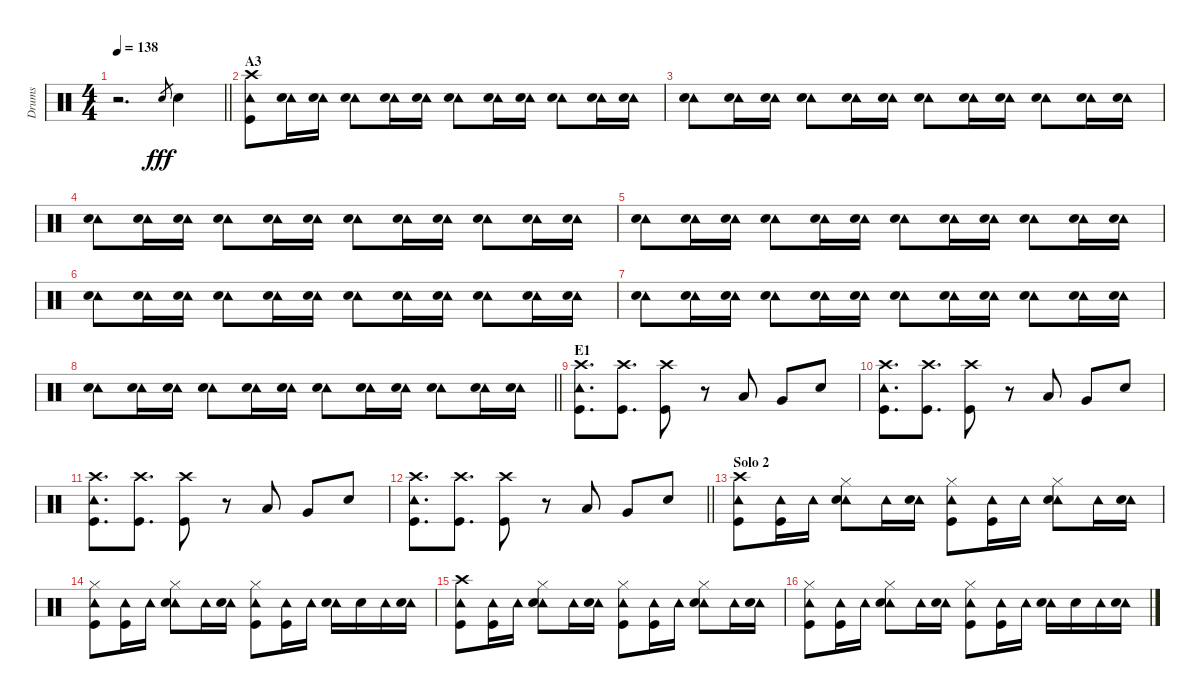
\track ("Drums" "Drums") {instrument percussion}
\staff {score}
\articulation defaults
\ts (4 4)
\tempo 138
\clef neutral
\barLineRight lightlight
\ks c
r.2{d dy fff} "Snare (hit) 2".8{gr} "Snare (hit) 2".4 |
\section ("" "A3")
("Crash high (hit)" "Tambourine (hit)" "Kick (hit)").8 ("Tambourine (hit)" "Snare (hit) 2").16 ("Tambourine (hit)" "Snare (hit) 2").16 ("Tambourine (hit)" "Snare (hit) 2").8 ("Tambourine (hit)" "Snare (hit) 2").16 ("Tambourine (hit)" "Snare (hit) 2").16 ("Tambourine (hit)" "Snare (hit) 2").8 ("Tambourine (hit)" "Snare (hit) 2").16 ("Tambourine (hit)" "Snare (hit) 2").16 ("Tambourine (hit)" "Snare (hit) 2").8 ("Tambourine (hit)" "Snare (hit) 2").16 ("Tambourine (hit)" "Snare (hit) 2").16 |
("Tambourine (hit)" "Snare (hit) 2").8 ("Tambourine (hit)" "Snare (hit) 2").16 ("Tambourine (hit)" "Snare (hit) 2").16 ("Tambourine (hit)" "Snare (hit) 2").8 ("Tambourine (hit)" "Snare (hit) 2").16 ("Tambourine (hit)" "Snare (hit) 2").16 ("Tambourine (hit)" "Snare (hit) 2").8 ("Tambourine (hit)" "Snare (hit) 2").16 ("Tambourine (hit)" "Snare (hit) 2").16 ("Tambourine (hit)" "Snare (hit) 2").8 ("Tambourine (hit)" "Snare (hit) 2").16 ("Tambourine (hit)" "Snare (hit) 2").16 |
("Tambourine (hit)" "Snare (hit) 2").8 ("Tambourine (hit)" "Snare (hit) 2").16 ("Tambourine (hit)" "Snare (hit) 2").16 ("Tambourine (hit)" "Snare (hit) 2").8 ("Tambourine (hit)" "Snare (hit) 2").16 ("Tambourine (hit)" "Snare (hit) 2").16 ("Tambourine (hit)" "Snare (hit) 2").8 ("Tambourine (hit)" "Snare (hit) 2").16 ("Tambourine (hit)" "Snare (hit) 2").16 ("Tambourine (hit)" "Snare (hit) 2").8 ("Tambourine (hit)" "Snare (hit) 2").16 ("Tambourine (hit)" "Snare (hit) 2").16 |
("Tambourine (hit)" "Snare (hit) 2").8 ("Tambourine (hit)" "Snare (hit) 2").16 ("Tambourine (hit)" "Snare (hit) 2").16 ("Tambourine (hit)" "Snare (hit) 2").8 ("Tambourine (hit)" "Snare (hit) 2").16 ("Tambourine (hit)" "Snare (hit) 2").16 ("Tambourine (hit)" "Snare (hit) 2").8 ("Tambourine (hit)" "Snare (hit) 2").16 ("Tambourine (hit)" "Snare (hit) 2").16 ("Tambourine (hit)" "Snare (hit) 2").8 ("Tambourine (hit)" "Snare (hit) 2").16 ("Tambourine (hit)" "Snare (hit) 2").16 |
("Tambourine (hit)" "Snare (hit) 2").8 ("Tambourine (hit)" "Snare (hit) 2").16 ("Tambourine (hit)" "Snare (hit) 2").16 ("Tambourine (hit)" "Snare (hit) 2").8 ("Tambourine (hit)" "Snare (hit) 2").16 ("Tambourine (hit)" "Snare (hit) 2").16 ("Tambourine (hit)" "Snare (hit) 2").8 ("Tambourine (hit)" "Snare (hit) 2").16 ("Tambourine (hit)" "Snare (hit) 2").16 ("Tambourine (hit)" "Snare (hit) 2").8 ("Tambourine (hit)" "Snare (hit) 2").16 ("Tambourine (hit)" "Snare (hit) 2").16 |
("Tambourine (hit)" "Snare (hit) 2").8 ("Tambourine (hit)" "Snare (hit) 2").16 ("Tambourine (hit)" "Snare (hit) 2").16 ("Tambourine (hit)" "Snare (hit) 2").8 ("Tambourine (hit)" "Snare (hit) 2").16 ("Tambourine (hit)" "Snare (hit) 2").16 ("Tambourine (hit)" "Snare (hit) 2").8 ("Tambourine (hit)" "Snare (hit) 2").16 ("Tambourine (hit)" "Snare (hit) 2").16 ("Tambourine (hit)" "Snare (hit) 2").8 ("Tambourine (hit)" "Snare (hit) 2").16 ("Tambourine (hit)" "Snare (hit) 2").16 |
\barLineRight lightlight
("Tambourine (hit)" "Snare (hit) 2").8 ("Tambourine (hit)" "Snare (hit) 2").16 ("Tambourine (hit)" "Snare (hit) 2").16 ("Tambourine (hit)" "Snare (hit) 2").8 ("Tambourine (hit)" "Snare (hit) 2").16 ("Tambourine (hit)" "Snare (hit) 2").16 ("Tambourine (hit)" "Snare (hit) 2").8 ("Tambourine (hit)" "Snare (hit) 2").16 ("Tambourine (hit)" "Snare (hit) 2").16 ("Tambourine (hit)" "Snare (hit) 2").8 ("Tambourine (hit)" "Snare (hit) 2").16 ("Tambourine (hit)" "Snare (hit) 2").16 |
\section ("" "E1")
("Crash high (hit)" "Tambourine (hit)" "Kick (hit)").8{d} ("Crash high (hit)" "Kick (hit)").8{d} ("Crash high (hit)" "Kick (hit)").8 r.8 "Low Floor Tom (hit)".8 "Very Low Tom (hit)".8 "Snare (hit) 2".8 |
("Crash high (hit)" "Tambourine (hit)" "Kick (hit)").8{d} ("Crash high (hit)" "Kick (hit)").8{d} ("Crash high (hit)" "Kick (hit)").8 r.8 "Low Floor Tom (hit)".8 "Very Low Tom (hit)".8 "Snare (hit) 2".8 |
("Crash high (hit)" "Tambourine (hit)" "Kick (hit)").8{d} ("Crash high (hit)" "Kick (hit)").8{d} ("Crash high (hit)" "Kick (hit)").8 r.8 "Low Floor Tom (hit)".8 "Very Low Tom (hit)".8 "Snare (hit) 2".8 |
\barLineRight lightlight
("Crash high (hit)" "Tambourine (hit)" "Kick (hit)").8{d} ("Crash high (hit)" "Kick (hit)").8{d} ("Crash high (hit)" "Kick (hit)").8 r.8 "Low Floor Tom (hit)".8 "Very Low Tom (hit)".8 "Snare (hit) 2".8 |
\section ("" "Solo 2")
("Crash high (hit)" "Tambourine (hit)" "Kick (hit)").8 ("Tambourine (hit)" "Kick (hit)").16 "Tambourine (hit)".16 ("Hi-Hat (closed)" "Tambourine (hit)" "Snare (hit) 2").8 "Tambourine (hit)".16 ("Tambourine (hit)" "Snare (hit) 2").16 ("Hi-Hat (closed)" "Tambourine (hit)" "Kick (hit)").8 ("Tambourine (hit)" "Kick (hit)").16 "Tambourine (hit)".16 ("Hi-Hat (closed)" "Tambourine (hit)" "Snare (hit) 2").8 "Tambourine (hit)".16 ("Tambourine (hit)" "Snare (hit) 2").16 |
("Hi-Hat (closed)" "Tambourine (hit)" "Kick (hit)").8 ("Tambourine (hit)" "Kick (hit)").16 "Tambourine (hit)".16 ("Hi-Hat (closed)" "Tambourine (hit)" "Snare (hit) 2").8 "Tambourine (hit)".16 ("Tambourine (hit)" "Snare (hit) 2").16 ("Hi-Hat (closed)" "Tambourine (hit)" "Kick (hit)").8 ("Tambourine (hit)" "Kick (hit)").16 "Tambourine (hit)".16 ("Tambourine (hit)" "Snare (hit) 2").16 "Snare (hit) 2".16 "Tambourine (hit)".16 ("Tambourine (hit)" "Snare (hit) 2").16 |
("Crash high (hit)" "Tambourine (hit)" "Kick (hit)").8 ("Tambourine (hit)" "Kick (hit)").16 "Tambourine (hit)".16 ("Hi-Hat (closed)" "Tambourine (hit)" "Snare (hit) 2").8 "Tambourine (hit)".16 ("Tambourine (hit)" "Snare (hit) 2").16 ("Hi-Hat (closed)" "Tambourine (hit)" "Kick (hit)").8 ("Tambourine (hit)" "Kick (hit)").16 "Tambourine (hit)".16 ("Hi-Hat (closed)" "Tambourine (hit)" "Snare (hit) 2").8 "Tambourine (hit)".16 ("Tambourine (hit)" "Snare (hit) 2").16 |
("Hi-Hat (closed)" "Tambourine (hit)" "Kick (hit)").8 ("Tambourine (hit)" "Kick (hit)").16 "Tambourine (hit)".16 ("Hi-Hat (closed)" "Tambourine (hit)" "Snare (hit) 2").8 "Tambourine (hit)".16 ("Tambourine (hit)" "Snare (hit) 2").16 ("Hi-Hat (closed)" "Tambourine (hit)" "Kick (hit)").8 ("Tambourine (hit)" "Kick (hit)").16 "Tambourine (hit)".16 ("Tambourine (hit)" "Snare (hit) 2").16 "Snare (hit) 2".16 "Tambourine (hit)".16 ("Tambourine (hit)" "Snare (hit) 2").16
